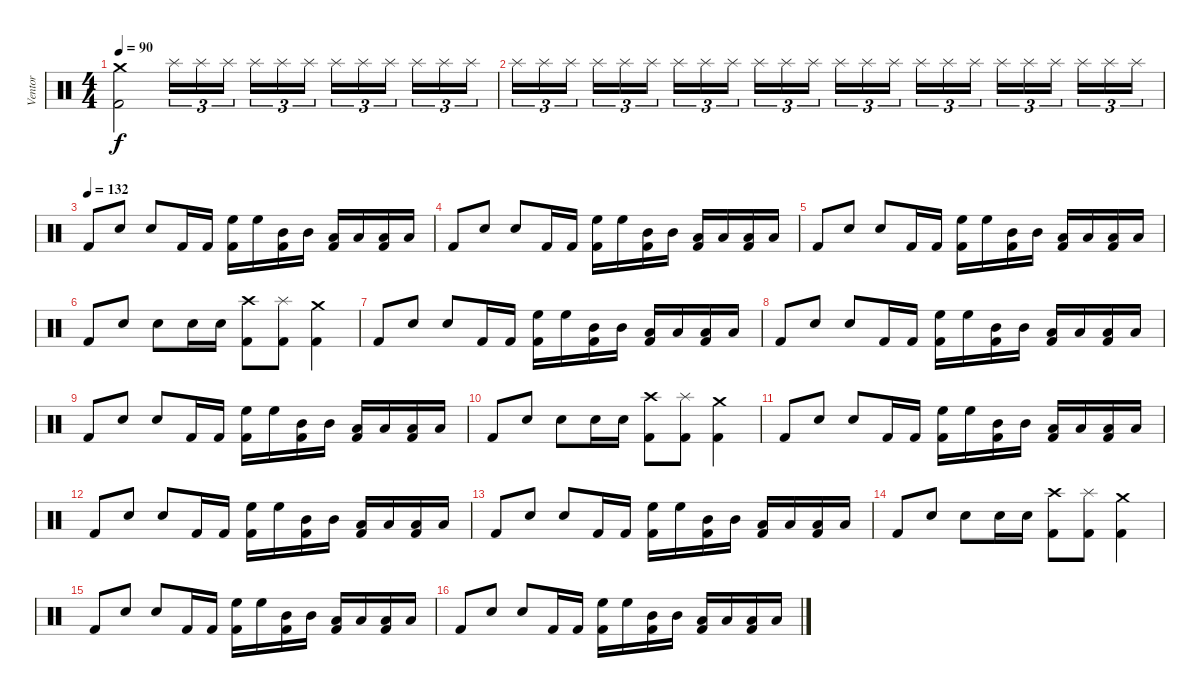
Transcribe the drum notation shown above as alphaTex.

\track ("Ventor" "Ventor") {instrument percussion}
\staff {score}
\articulation defaults
\ts (4 4)
\tempo 90
\clef neutral
\ks c
("Crash medium (hit)" "Kick (hit) 2").2{dy f} "Splash (hit)".16{tu (3 2) volume 4} "Splash (hit)".16{tu (3 2) volume 16} "Splash (hit)".16{tu (3 2)} "Splash (hit)".16{tu (3 2)} "Splash (hit)".16{tu (3 2)} "Splash (hit)".16{tu (3 2)} "Splash (hit)".16{tu (3 2)} "Splash (hit)".16{tu (3 2)} "Splash (hit)".16{tu (3 2)} "Splash (hit)".16{tu (3 2)} "Splash (hit)".16{tu (3 2)} "Splash (hit)".16{tu (3 2)} |
"Splash (hit)".16{tu (3 2)} "Splash (hit)".16{tu (3 2)} "Splash (hit)".16{tu (3 2)} "Splash (hit)".16{tu (3 2)} "Splash (hit)".16{tu (3 2)} "Splash (hit)".16{tu (3 2)} "Splash (hit)".16{tu (3 2)} "Splash (hit)".16{tu (3 2)} "Splash (hit)".16{tu (3 2)} "Splash (hit)".16{tu (3 2)} "Splash (hit)".16{tu (3 2)} "Splash (hit)".16{tu (3 2)} "Splash (hit)".16{tu (3 2)} "Splash (hit)".16{tu (3 2)} "Splash (hit)".16{tu (3 2)} "Splash (hit)".16{tu (3 2)} "Splash (hit)".16{tu (3 2)} "Splash (hit)".16{tu (3 2)} "Splash (hit)".16{tu (3 2)} "Splash (hit)".16{tu (3 2)} "Splash (hit)".16{tu (3 2)} "Splash (hit)".16{tu (3 2)} "Splash (hit)".16{tu (3 2)} "Splash (hit)".16{tu (3 2)} |
\tempo (132)
"Kick (hit) 2".8 "Snare (hit) 2".8 "Snare (hit) 2".8 "Kick (hit) 2".16 "Kick (hit) 2".16 ("High Floor Tom (hit)" "Kick (hit) 2").16 "High Floor Tom (hit)".16 ("Mid Tom (hit)" "Kick (hit) 2").16 "Mid Tom (hit)".16 ("Low Tom (hit)" "Kick (hit) 2").16 "Low Tom (hit)".16 ("Low Floor Tom (hit)" "Kick (hit) 2").16 "Low Floor Tom (hit)".16 |
"Kick (hit) 2".8 "Snare (hit) 2".8 "Snare (hit) 2".8 "Kick (hit) 2".16 "Kick (hit) 2".16 ("High Floor Tom (hit)" "Kick (hit) 2").16 "High Floor Tom (hit)".16 ("Mid Tom (hit)" "Kick (hit) 2").16 "Mid Tom (hit)".16 ("Low Tom (hit)" "Kick (hit) 2").16 "Low Tom (hit)".16 ("Low Floor Tom (hit)" "Kick (hit) 2").16 "Low Floor Tom (hit)".16 |
"Kick (hit) 2".8 "Snare (hit) 2".8 "Snare (hit) 2".8 "Kick (hit) 2".16 "Kick (hit) 2".16 ("High Floor Tom (hit)" "Kick (hit) 2").16 "High Floor Tom (hit)".16 ("Mid Tom (hit)" "Kick (hit) 2").16 "Mid Tom (hit)".16 ("Low Tom (hit)" "Kick (hit) 2").16 "Low Tom (hit)".16 ("Low Floor Tom (hit)" "Kick (hit) 2").16 "Low Floor Tom (hit)".16 |
"Kick (hit) 2".8 "Snare (hit) 2".8 "Snare (hit) 2".8 "Snare (hit) 2".16 "Snare (hit) 2".16 ("Crash high (hit)" "Kick (hit) 2").8 ("Splash (hit)" "Kick (hit) 2").8 ("Crash medium (hit)" "Kick (hit) 2").4 |
"Kick (hit) 2".8 "Snare (hit) 2".8 "Snare (hit) 2".8 "Kick (hit) 2".16 "Kick (hit) 2".16 ("High Floor Tom (hit)" "Kick (hit) 2").16 "High Floor Tom (hit)".16 ("Mid Tom (hit)" "Kick (hit) 2").16 "Mid Tom (hit)".16 ("Low Tom (hit)" "Kick (hit) 2").16 "Low Tom (hit)".16 ("Low Floor Tom (hit)" "Kick (hit) 2").16 "Low Floor Tom (hit)".16 |
"Kick (hit) 2".8 "Snare (hit) 2".8 "Snare (hit) 2".8 "Kick (hit) 2".16 "Kick (hit) 2".16 ("High Floor Tom (hit)" "Kick (hit) 2").16 "High Floor Tom (hit)".16 ("Mid Tom (hit)" "Kick (hit) 2").16 "Mid Tom (hit)".16 ("Low Tom (hit)" "Kick (hit) 2").16 "Low Tom (hit)".16 ("Low Floor Tom (hit)" "Kick (hit) 2").16 "Low Floor Tom (hit)".16 |
"Kick (hit) 2".8 "Snare (hit) 2".8 "Snare (hit) 2".8 "Kick (hit) 2".16 "Kick (hit) 2".16 ("High Floor Tom (hit)" "Kick (hit) 2").16 "High Floor Tom (hit)".16 ("Mid Tom (hit)" "Kick (hit) 2").16 "Mid Tom (hit)".16 ("Low Tom (hit)" "Kick (hit) 2").16 "Low Tom (hit)".16 ("Low Floor Tom (hit)" "Kick (hit) 2").16 "Low Floor Tom (hit)".16 |
"Kick (hit) 2".8 "Snare (hit) 2".8 "Snare (hit) 2".8 "Snare (hit) 2".16 "Snare (hit) 2".16 ("Crash high (hit)" "Kick (hit) 2").8 ("Splash (hit)" "Kick (hit) 2").8 ("Crash medium (hit)" "Kick (hit) 2").4 |
"Kick (hit) 2".8 "Snare (hit) 2".8 "Snare (hit) 2".8 "Kick (hit) 2".16 "Kick (hit) 2".16 ("High Floor Tom (hit)" "Kick (hit) 2").16 "High Floor Tom (hit)".16 ("Mid Tom (hit)" "Kick (hit) 2").16 "Mid Tom (hit)".16 ("Low Tom (hit)" "Kick (hit) 2").16 "Low Tom (hit)".16 ("Low Floor Tom (hit)" "Kick (hit) 2").16 "Low Floor Tom (hit)".16 |
"Kick (hit) 2".8 "Snare (hit) 2".8 "Snare (hit) 2".8 "Kick (hit) 2".16 "Kick (hit) 2".16 ("High Floor Tom (hit)" "Kick (hit) 2").16 "High Floor Tom (hit)".16 ("Mid Tom (hit)" "Kick (hit) 2").16 "Mid Tom (hit)".16 ("Low Tom (hit)" "Kick (hit) 2").16 "Low Tom (hit)".16 ("Low Floor Tom (hit)" "Kick (hit) 2").16 "Low Floor Tom (hit)".16 |
"Kick (hit) 2".8 "Snare (hit) 2".8 "Snare (hit) 2".8 "Kick (hit) 2".16 "Kick (hit) 2".16 ("High Floor Tom (hit)" "Kick (hit) 2").16 "High Floor Tom (hit)".16 ("Mid Tom (hit)" "Kick (hit) 2").16 "Mid Tom (hit)".16 ("Low Tom (hit)" "Kick (hit) 2").16 "Low Tom (hit)".16 ("Low Floor Tom (hit)" "Kick (hit) 2").16 "Low Floor Tom (hit)".16 |
"Kick (hit) 2".8 "Snare (hit) 2".8 "Snare (hit) 2".8 "Snare (hit) 2".16 "Snare (hit) 2".16 ("Crash high (hit)" "Kick (hit) 2").8 ("Splash (hit)" "Kick (hit) 2").8 ("Crash medium (hit)" "Kick (hit) 2").4 |
"Kick (hit) 2".8 "Snare (hit) 2".8 "Snare (hit) 2".8 "Kick (hit) 2".16 "Kick (hit) 2".16 ("High Floor Tom (hit)" "Kick (hit) 2").16 "High Floor Tom (hit)".16 ("Mid Tom (hit)" "Kick (hit) 2").16 "Mid Tom (hit)".16 ("Low Tom (hit)" "Kick (hit) 2").16 "Low Tom (hit)".16 ("Low Floor Tom (hit)" "Kick (hit) 2").16 "Low Floor Tom (hit)".16 |
"Kick (hit) 2".8 "Snare (hit) 2".8 "Snare (hit) 2".8 "Kick (hit) 2".16 "Kick (hit) 2".16 ("High Floor Tom (hit)" "Kick (hit) 2").16 "High Floor Tom (hit)".16 ("Mid Tom (hit)" "Kick (hit) 2").16 "Mid Tom (hit)".16 ("Low Tom (hit)" "Kick (hit) 2").16 "Low Tom (hit)".16 ("Low Floor Tom (hit)" "Kick (hit) 2").16 "Low Floor Tom (hit)".16
